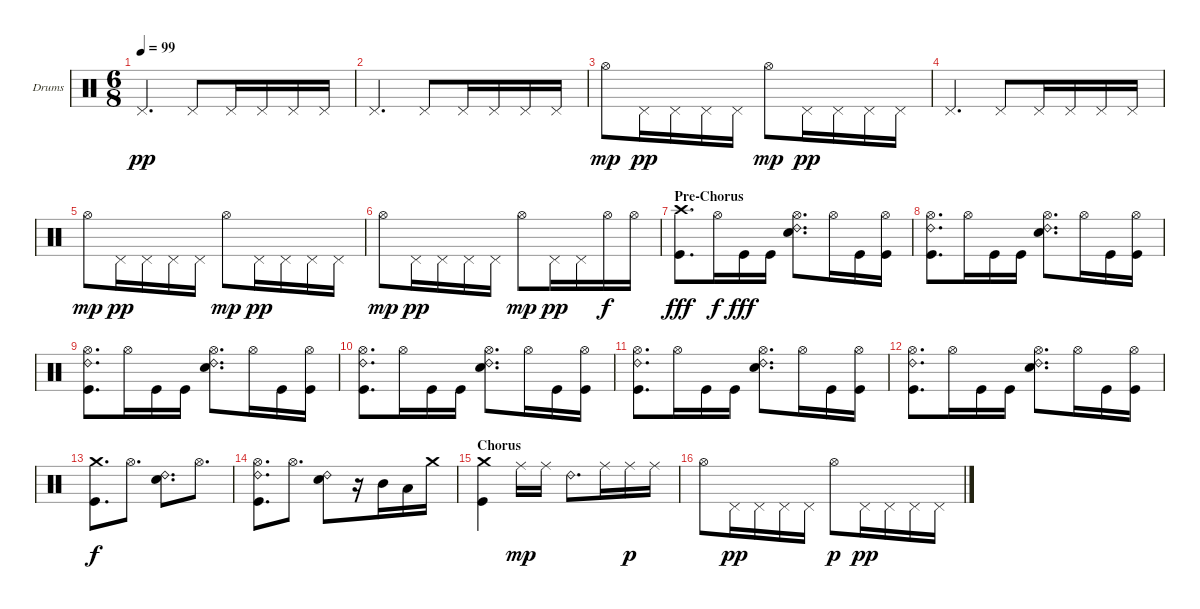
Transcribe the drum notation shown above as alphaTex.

\defaultSystemsLayout 4
\bracketExtendMode nobrackets
\firstSystemTrackNameOrientation horizontal
\otherSystemsTrackNameOrientation horizontal
\track ("Dave Abbruzzese" "Drums") {solo instrument percussion}
\staff {score}
\articulation defaults
\ts (6 8)
\tempo 99
\clef neutral
\ks c "Pedal Hi-Hat (hit)".4{d dy pp} "Pedal Hi-Hat (hit)".8 "Pedal Hi-Hat (hit)".16 "Pedal Hi-Hat (hit)".16 "Pedal Hi-Hat (hit)".16 "Pedal Hi-Hat (hit)".16
|
"Pedal Hi-Hat (hit)".4{d} "Pedal Hi-Hat (hit)".8 "Pedal Hi-Hat (hit)".16 "Pedal Hi-Hat (hit)".16 "Pedal Hi-Hat (hit)".16 "Pedal Hi-Hat (hit)".16 |
"Hi-Hat (open)".8{dy mp} "Pedal Hi-Hat (hit)".16{dy pp} "Pedal Hi-Hat (hit)".16 "Pedal Hi-Hat (hit)".16 "Pedal Hi-Hat (hit)".16 "Hi-Hat (open)".8{dy mp} "Pedal Hi-Hat (hit)".16{dy pp} "Pedal Hi-Hat (hit)".16 "Pedal Hi-Hat (hit)".16 "Pedal Hi-Hat (hit)".16 |
"Pedal Hi-Hat (hit)".4{d} "Pedal Hi-Hat (hit)".8 "Pedal Hi-Hat (hit)".16 "Pedal Hi-Hat (hit)".16 "Pedal Hi-Hat (hit)".16 "Pedal Hi-Hat (hit)".16 |
"Hi-Hat (open)".8{dy mp} "Pedal Hi-Hat (hit)".16{dy pp} "Pedal Hi-Hat (hit)".16 "Pedal Hi-Hat (hit)".16 "Pedal Hi-Hat (hit)".16 "Hi-Hat (open)".8{dy mp} "Pedal Hi-Hat (hit)".16{dy pp} "Pedal Hi-Hat (hit)".16 "Pedal Hi-Hat (hit)".16 "Pedal Hi-Hat (hit)".16 |
"Hi-Hat (open)".8{dy mp} "Pedal Hi-Hat (hit)".16{dy pp} "Pedal Hi-Hat (hit)".16 "Pedal Hi-Hat (hit)".16 "Pedal Hi-Hat (hit)".16 "Hi-Hat (open)".8{dy mp} "Pedal Hi-Hat (hit)".16{dy pp} "Pedal Hi-Hat (hit)".16 "Hi-Hat (open)".16{dy f} "Hi-Hat (open)".16 |
\section ("" "Pre-Chorus")
("Crash high (hit)" "Kick (hit)").8{d dy fff} "Hi-Hat (open)".16{dy f} "Kick (hit)".16{dy fff} "Kick (hit)".16 ("Ride (bell) 2" "Snare (hit) 2" "Hi-Hat (open)").8{d} "Hi-Hat (open)".16 "Kick (hit)".16 ("Hi-Hat (open)" "Kick (hit)").16 |
("Ride (bell) 2" "Kick (hit)" "Hi-Hat (open)").8{d} "Hi-Hat (open)".16 "Kick (hit)".16 "Kick (hit)".16 ("Ride (bell) 2" "Snare (hit) 2" "Hi-Hat (open)").8{d} "Hi-Hat (open)".16 "Kick (hit)".16 ("Hi-Hat (open)" "Kick (hit)").16 |
("Ride (bell) 2" "Kick (hit)" "Hi-Hat (open)").8{d} "Hi-Hat (open)".16 "Kick (hit)".16 "Kick (hit)".16 ("Ride (bell) 2" "Snare (hit) 2" "Hi-Hat (open)").8{d} "Hi-Hat (open)".16 "Kick (hit)".16 ("Hi-Hat (open)" "Kick (hit)").16 |
("Ride (bell) 2" "Kick (hit)" "Hi-Hat (open)").8{d} "Hi-Hat (open)".16 "Kick (hit)".16 "Kick (hit)".16 ("Ride (bell) 2" "Snare (hit) 2" "Hi-Hat (open)").8{d} "Hi-Hat (open)".16 "Kick (hit)".16 ("Hi-Hat (open)" "Kick (hit)").16 |
("Ride (bell) 2" "Kick (hit)" "Hi-Hat (open)").8{d} "Hi-Hat (open)".16 "Kick (hit)".16 "Kick (hit)".16 ("Ride (bell) 2" "Snare (hit) 2" "Hi-Hat (open)").8{d} "Hi-Hat (open)".16 "Kick (hit)".16 ("Hi-Hat (open)" "Kick (hit)").16 |
("Ride (bell) 2" "Kick (hit)" "Hi-Hat (open)").8{d} "Hi-Hat (open)".16 "Kick (hit)".16 "Kick (hit)".16 ("Ride (bell) 2" "Snare (hit) 2" "Hi-Hat (open)").8{d} "Hi-Hat (open)".16 "Kick (hit)".16 ("Hi-Hat (open)" "Kick (hit)").16 |
("Crash medium (hit)" "Kick (hit)").8{d dy f} "Hi-Hat (open)".8{d} ("Ride (bell) 2" "Snare (hit) 2").8{d} "Hi-Hat (open)".8{d} |
("Ride (bell) 2" "Hi-Hat (open)" "Kick (hit)").8{d} "Hi-Hat (open)".8{d} ("Ride (bell) 2" "Snare (hit) 2").8 r.16 "Mid Tom (hit)".16 "Low Tom (hit)".16 "Crash medium (hit)".16 |
\section ("" "Chorus")
("Crash medium (hit)" "Kick (hit)").4 "Ride (middle)".16{dy mp} "Ride (middle)".16 "Ride (bell) 2".8{d} "Ride (middle)".16 "Ride (middle)".16{dy p} "Ride (middle)".16 |
"Hi-Hat (open)".8 "Pedal Hi-Hat (hit)".16{dy pp} "Pedal Hi-Hat (hit)".16 "Pedal Hi-Hat (hit)".16 "Pedal Hi-Hat (hit)".16 "Hi-Hat (open)".8{dy p} "Pedal Hi-Hat (hit)".16{dy pp} "Pedal Hi-Hat (hit)".16 "Pedal Hi-Hat (hit)".16 "Pedal Hi-Hat (hit)".16
